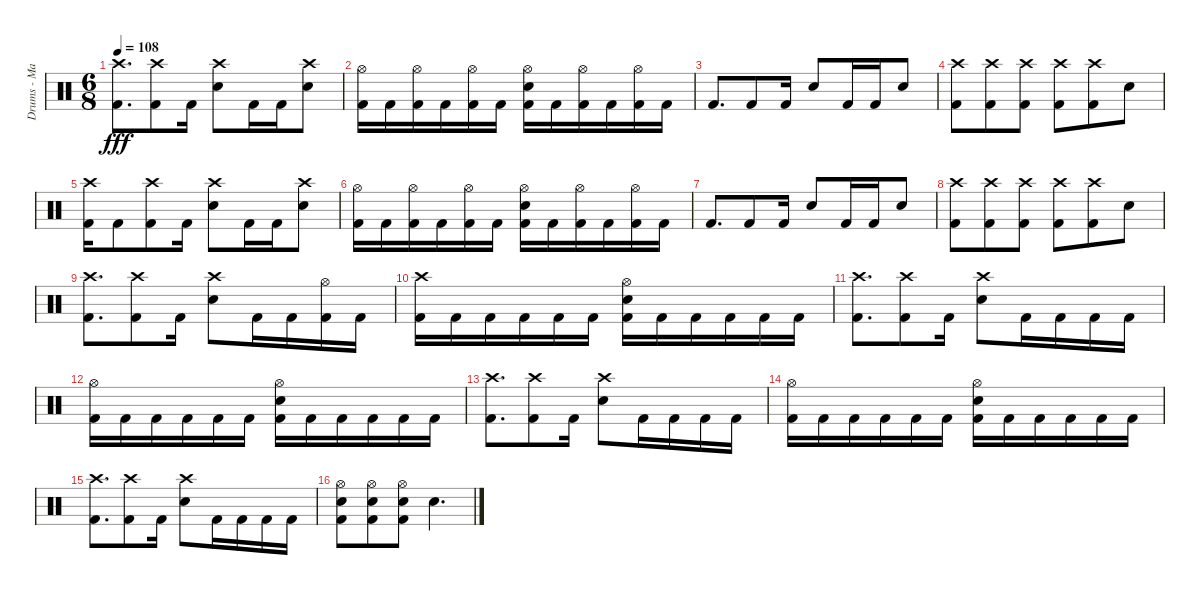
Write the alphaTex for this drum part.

\track ("Drums - Matt Traynor" "Drums - Ma") {instrument percussion}
\staff {score}
\articulation defaults
\ts (6 8)
\tempo 108
\clef neutral
\ks c
("Crash high (hit)" "Kick (hit) 2").8{d dy fff} ("Crash high (hit)" "Kick (hit) 2").8 "Kick (hit) 2".16 ("Crash high (hit)" "Snare (hit) 2").8 "Kick (hit) 2".16 "Kick (hit) 2".16 ("Crash high (hit)" "Snare (hit) 2").8 |
("Hi-Hat (open)" "Kick (hit) 2").16 "Kick (hit) 2".16 ("Hi-Hat (open)" "Kick (hit) 2").16 "Kick (hit) 2".16 ("Hi-Hat (open)" "Kick (hit) 2").16 "Kick (hit) 2".16 ("Hi-Hat (open)" "Snare (hit) 2" "Kick (hit) 2").16 "Kick (hit) 2".16 ("Hi-Hat (open)" "Kick (hit) 2").16 "Kick (hit) 2".16 ("Hi-Hat (open)" "Kick (hit) 2").16 "Kick (hit) 2".16 |
"Kick (hit) 2".8{d} "Kick (hit) 2".8 "Kick (hit) 2".16 "Snare (hit) 2".8 "Kick (hit) 2".16 "Kick (hit) 2".16 "Snare (hit) 2".8 |
("Crash high (hit)" "Kick (hit) 2").8 ("Crash high (hit)" "Kick (hit) 2").8 ("Crash high (hit)" "Kick (hit) 2").8 ("Crash high (hit)" "Kick (hit) 2").8 ("Crash high (hit)" "Kick (hit) 2").8 "Snare (hit) 2".8 |
("Crash high (hit)" "Kick (hit) 2").16 "Kick (hit) 2".8 ("Crash high (hit)" "Kick (hit) 2").8 "Kick (hit) 2".16 ("Crash high (hit)" "Snare (hit) 2").8 "Kick (hit) 2".16 "Kick (hit) 2".16 ("Crash high (hit)" "Snare (hit) 2").8 |
("Hi-Hat (open)" "Kick (hit) 2").16 "Kick (hit) 2".16 ("Hi-Hat (open)" "Kick (hit) 2").16 "Kick (hit) 2".16 ("Hi-Hat (open)" "Kick (hit) 2").16 "Kick (hit) 2".16 ("Hi-Hat (open)" "Snare (hit) 2" "Kick (hit) 2").16 "Kick (hit) 2".16 ("Hi-Hat (open)" "Kick (hit) 2").16 "Kick (hit) 2".16 ("Hi-Hat (open)" "Kick (hit) 2").16 "Kick (hit) 2".16 |
"Kick (hit) 2".8{d} "Kick (hit) 2".8 "Kick (hit) 2".16 "Snare (hit) 2".8 "Kick (hit) 2".16 "Kick (hit) 2".16 "Snare (hit) 2".8 |
("Crash high (hit)" "Kick (hit) 2").8 ("Crash high (hit)" "Kick (hit) 2").8 ("Crash high (hit)" "Kick (hit) 2").8 ("Crash high (hit)" "Kick (hit) 2").8 ("Crash high (hit)" "Kick (hit) 2").8 "Snare (hit) 2".8 |
("Crash high (hit)" "Kick (hit) 2").8{d} ("Crash high (hit)" "Kick (hit) 2").8 "Kick (hit) 2".16 ("Crash high (hit)" "Snare (hit) 2").8 "Kick (hit) 2".16 "Kick (hit) 2".16 ("Hi-Hat (open)" "Kick (hit) 2").16 "Kick (hit) 2".16 |
("Crash high (hit)" "Kick (hit) 2").16 "Kick (hit) 2".16 "Kick (hit) 2".16 "Kick (hit) 2".16 "Kick (hit) 2".16 "Kick (hit) 2".16 ("Hi-Hat (open)" "Snare (hit) 2" "Kick (hit) 2").16 "Kick (hit) 2".16 "Kick (hit) 2".16 "Kick (hit) 2".16 "Kick (hit) 2".16 "Kick (hit) 2".16 |
("Crash high (hit)" "Kick (hit) 2").8{d} ("Crash high (hit)" "Kick (hit) 2").8 "Kick (hit) 2".16 ("Crash high (hit)" "Snare (hit) 2").8 "Kick (hit) 2".16 "Kick (hit) 2".16 "Kick (hit) 2".16 "Kick (hit) 2".16 |
("Hi-Hat (open)" "Kick (hit) 2").16 "Kick (hit) 2".16 "Kick (hit) 2".16 "Kick (hit) 2".16 "Kick (hit) 2".16 "Kick (hit) 2".16 ("Hi-Hat (open)" "Snare (hit) 2" "Kick (hit) 2").16 "Kick (hit) 2".16 "Kick (hit) 2".16 "Kick (hit) 2".16 "Kick (hit) 2".16 "Kick (hit) 2".16 |
("Crash high (hit)" "Kick (hit) 2").8{d} ("Crash high (hit)" "Kick (hit) 2").8 "Kick (hit) 2".16 ("Crash high (hit)" "Snare (hit) 2").8 "Kick (hit) 2".16 "Kick (hit) 2".16 "Kick (hit) 2".16 "Kick (hit) 2".16 |
("Hi-Hat (open)" "Kick (hit) 2").16 "Kick (hit) 2".16 "Kick (hit) 2".16 "Kick (hit) 2".16 "Kick (hit) 2".16 "Kick (hit) 2".16 ("Hi-Hat (open)" "Snare (hit) 2" "Kick (hit) 2").16 "Kick (hit) 2".16 "Kick (hit) 2".16 "Kick (hit) 2".16 "Kick (hit) 2".16 "Kick (hit) 2".16 |
("Crash high (hit)" "Kick (hit) 2").8{d} ("Crash high (hit)" "Kick (hit) 2").8 "Kick (hit) 2".16 ("Crash high (hit)" "Snare (hit) 2").8 "Kick (hit) 2".16 "Kick (hit) 2".16 "Kick (hit) 2".16 "Kick (hit) 2".16 |
("Hi-Hat (open)" "Snare (hit) 2" "Kick (hit) 2").8 ("Hi-Hat (open)" "Snare (hit) 2" "Kick (hit) 2").8 ("Hi-Hat (open)" "Snare (hit) 2" "Kick (hit) 2").8 "Snare (hit) 2".4{d}
